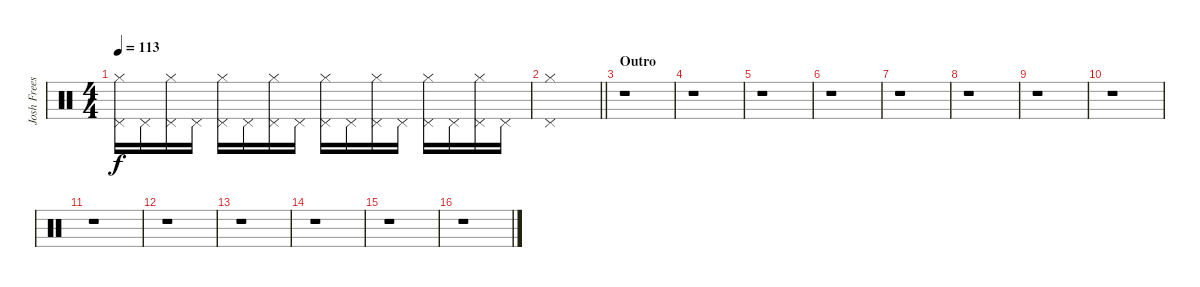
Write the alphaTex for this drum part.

\track ("Josh Freese (Studio Drummer)" "Josh Frees") {instrument percussion}
\staff {score}
\articulation defaults
\ts (4 4)
\tempo 113
\clef neutral
\ks c
("Pedal Hi-Hat (hit)" "Hi-Hat (closed)").16{dy f} "Pedal Hi-Hat (hit)".16 ("Pedal Hi-Hat (hit)" "Hi-Hat (closed)").16 "Pedal Hi-Hat (hit)".16 ("Pedal Hi-Hat (hit)" "Hi-Hat (closed)").16 "Pedal Hi-Hat (hit)".16 ("Pedal Hi-Hat (hit)" "Hi-Hat (closed)").16 "Pedal Hi-Hat (hit)".16 ("Pedal Hi-Hat (hit)" "Hi-Hat (closed)").16 "Pedal Hi-Hat (hit)".16 ("Pedal Hi-Hat (hit)" "Hi-Hat (closed)").16 "Pedal Hi-Hat (hit)".16 ("Pedal Hi-Hat (hit)" "Hi-Hat (closed)").16 "Pedal Hi-Hat (hit)".16 ("Pedal Hi-Hat (hit)" "Hi-Hat (closed)").16 "Pedal Hi-Hat (hit)".16 |
\barLineRight lightlight
("Pedal Hi-Hat (hit)" "Hi-Hat (closed)").1 |
\section ("" "Outro")
r.1 |
r.1 |
r.1 |
r.1 |
r.1 |
r.1 |
r.1 |
r.1 |
r.1 |
r.1 |
r.1 |
r.1 |
r.1 |
r.1
